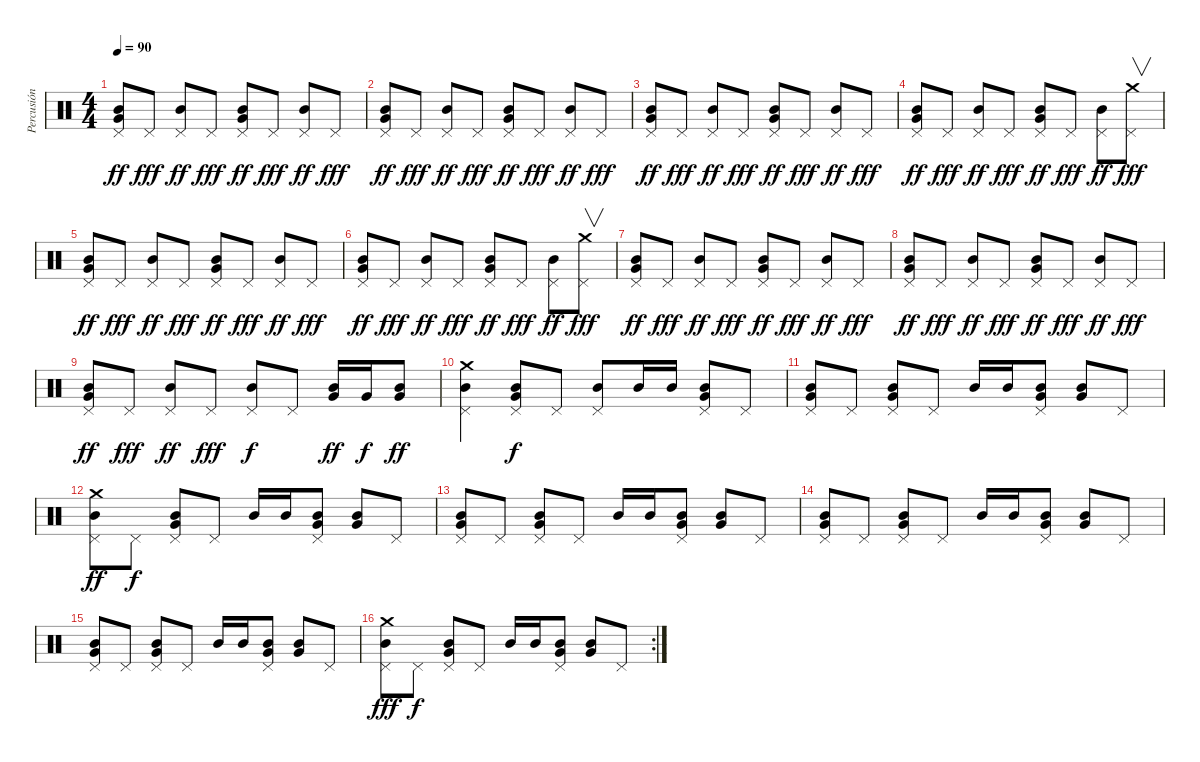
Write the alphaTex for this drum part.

\track ("Percusión" "Percusión") {instrument percussion}
\staff {score}
\articulation defaults
\ts (4 4)
\tempo 90
\clef neutral
\ks c
("Pedal Hi-Hat (hit)" "Very Low Tom (hit)" "Mid Tom (hit)").8{dy ff} "Pedal Hi-Hat (hit)".8{dy fff} ("Pedal Hi-Hat (hit)" "Mid Tom (hit)").8{dy ff} "Pedal Hi-Hat (hit)".8{dy fff} ("Pedal Hi-Hat (hit)" "Very Low Tom (hit)" "Mid Tom (hit)").8{dy ff} "Pedal Hi-Hat (hit)".8{dy fff} ("Pedal Hi-Hat (hit)" "Mid Tom (hit)").8{dy ff} "Pedal Hi-Hat (hit)".8{dy fff} |
("Pedal Hi-Hat (hit)" "Very Low Tom (hit)" "Mid Tom (hit)").8{dy ff} "Pedal Hi-Hat (hit)".8{dy fff} ("Pedal Hi-Hat (hit)" "Mid Tom (hit)").8{dy ff} "Pedal Hi-Hat (hit)".8{dy fff} ("Pedal Hi-Hat (hit)" "Very Low Tom (hit)" "Mid Tom (hit)").8{dy ff} "Pedal Hi-Hat (hit)".8{dy fff} ("Pedal Hi-Hat (hit)" "Mid Tom (hit)").8{dy ff} "Pedal Hi-Hat (hit)".8{dy fff} |
("Pedal Hi-Hat (hit)" "Very Low Tom (hit)" "Mid Tom (hit)").8{dy ff} "Pedal Hi-Hat (hit)".8{dy fff} ("Pedal Hi-Hat (hit)" "Mid Tom (hit)").8{dy ff} "Pedal Hi-Hat (hit)".8{dy fff} ("Pedal Hi-Hat (hit)" "Very Low Tom (hit)" "Mid Tom (hit)").8{dy ff} "Pedal Hi-Hat (hit)".8{dy fff} ("Pedal Hi-Hat (hit)" "Mid Tom (hit)").8{dy ff} "Pedal Hi-Hat (hit)".8{dy fff} |
("Pedal Hi-Hat (hit)" "Very Low Tom (hit)" "Mid Tom (hit)").8{dy ff} "Pedal Hi-Hat (hit)".8{dy fff} ("Pedal Hi-Hat (hit)" "Mid Tom (hit)").8{dy ff} "Pedal Hi-Hat (hit)".8{dy fff} ("Pedal Hi-Hat (hit)" "Very Low Tom (hit)" "Mid Tom (hit)").8{dy ff} "Pedal Hi-Hat (hit)".8{dy fff} ("Pedal Hi-Hat (hit)" "Mid Tom (hit)").8{dy ff} ("Pedal Hi-Hat (hit)" "Crash medium (hit)").8{v dy fff} |
("Pedal Hi-Hat (hit)" "Very Low Tom (hit)" "Mid Tom (hit)").8{dy ff} "Pedal Hi-Hat (hit)".8{dy fff} ("Pedal Hi-Hat (hit)" "Mid Tom (hit)").8{dy ff} "Pedal Hi-Hat (hit)".8{dy fff} ("Pedal Hi-Hat (hit)" "Very Low Tom (hit)" "Mid Tom (hit)").8{dy ff} "Pedal Hi-Hat (hit)".8{dy fff} ("Pedal Hi-Hat (hit)" "Mid Tom (hit)").8{dy ff} "Pedal Hi-Hat (hit)".8{dy fff} |
("Pedal Hi-Hat (hit)" "Very Low Tom (hit)" "Mid Tom (hit)").8{dy ff} "Pedal Hi-Hat (hit)".8{dy fff} ("Pedal Hi-Hat (hit)" "Mid Tom (hit)").8{dy ff} "Pedal Hi-Hat (hit)".8{dy fff} ("Pedal Hi-Hat (hit)" "Very Low Tom (hit)" "Mid Tom (hit)").8{dy ff} "Pedal Hi-Hat (hit)".8{dy fff} ("Pedal Hi-Hat (hit)" "Mid Tom (hit)").8{dy ff} ("Pedal Hi-Hat (hit)" "Crash medium (hit)").8{v dy fff} |
("Pedal Hi-Hat (hit)" "Very Low Tom (hit)" "Mid Tom (hit)").8{dy ff} "Pedal Hi-Hat (hit)".8{dy fff} ("Pedal Hi-Hat (hit)" "Mid Tom (hit)").8{dy ff} "Pedal Hi-Hat (hit)".8{dy fff} ("Pedal Hi-Hat (hit)" "Very Low Tom (hit)" "Mid Tom (hit)").8{dy ff} "Pedal Hi-Hat (hit)".8{dy fff} ("Pedal Hi-Hat (hit)" "Mid Tom (hit)").8{dy ff} "Pedal Hi-Hat (hit)".8{dy fff} |
("Pedal Hi-Hat (hit)" "Very Low Tom (hit)" "Mid Tom (hit)").8{dy ff} "Pedal Hi-Hat (hit)".8{dy fff} ("Pedal Hi-Hat (hit)" "Mid Tom (hit)").8{dy ff} "Pedal Hi-Hat (hit)".8{dy fff} ("Pedal Hi-Hat (hit)" "Very Low Tom (hit)" "Mid Tom (hit)").8{dy ff} "Pedal Hi-Hat (hit)".8{dy fff} ("Pedal Hi-Hat (hit)" "Mid Tom (hit)").8{dy ff} "Pedal Hi-Hat (hit)".8{dy fff} |
("Pedal Hi-Hat (hit)" "Very Low Tom (hit)" "Mid Tom (hit)").8{dy ff} "Pedal Hi-Hat (hit)".8{dy fff} ("Pedal Hi-Hat (hit)" "Mid Tom (hit)").8{dy ff} "Pedal Hi-Hat (hit)".8{dy fff} ("Pedal Hi-Hat (hit)" "Mid Tom (hit)").8{dy f} "Pedal Hi-Hat (hit)".8 ("Very Low Tom (hit)" "Mid Tom (hit)").16{dy ff} "Very Low Tom (hit)".16{dy f} ("Very Low Tom (hit)" "Mid Tom (hit)").8{dy ff} |
("Pedal Hi-Hat (hit)" "Mid Tom (hit)" "Crash medium (hit)").4 ("Pedal Hi-Hat (hit)" "Very Low Tom (hit)" "Mid Tom (hit)").8{dy f} "Pedal Hi-Hat (hit)".8 ("Pedal Hi-Hat (hit)" "Mid Tom (hit)").8 "Mid Tom (hit)".16 "Mid Tom (hit)".16 ("Pedal Hi-Hat (hit)" "Very Low Tom (hit)" "Mid Tom (hit)").8 "Pedal Hi-Hat (hit)".8 |
("Pedal Hi-Hat (hit)" "Very Low Tom (hit)" "Mid Tom (hit)").8 "Pedal Hi-Hat (hit)".8 ("Pedal Hi-Hat (hit)" "Very Low Tom (hit)" "Mid Tom (hit)").8 "Pedal Hi-Hat (hit)".8 "Mid Tom (hit)".16 "Mid Tom (hit)".16 ("Pedal Hi-Hat (hit)" "Very Low Tom (hit)" "Mid Tom (hit)").8 ("Very Low Tom (hit)" "Mid Tom (hit)").8 "Pedal Hi-Hat (hit)".8 |
("Pedal Hi-Hat (hit)" "Mid Tom (hit)" "Crash medium (hit)").8{dy ff} "Pedal Hi-Hat (hit)".8{dy f} ("Pedal Hi-Hat (hit)" "Very Low Tom (hit)" "Mid Tom (hit)").8 "Pedal Hi-Hat (hit)".8 "Mid Tom (hit)".16 "Mid Tom (hit)".16 ("Pedal Hi-Hat (hit)" "Very Low Tom (hit)" "Mid Tom (hit)").8 ("Very Low Tom (hit)" "Mid Tom (hit)").8 "Pedal Hi-Hat (hit)".8 |
("Pedal Hi-Hat (hit)" "Very Low Tom (hit)" "Mid Tom (hit)").8 "Pedal Hi-Hat (hit)".8 ("Pedal Hi-Hat (hit)" "Very Low Tom (hit)" "Mid Tom (hit)").8 "Pedal Hi-Hat (hit)".8 "Mid Tom (hit)".16 "Mid Tom (hit)".16 ("Pedal Hi-Hat (hit)" "Very Low Tom (hit)" "Mid Tom (hit)").8 ("Very Low Tom (hit)" "Mid Tom (hit)").8 "Pedal Hi-Hat (hit)".8 |
("Pedal Hi-Hat (hit)" "Very Low Tom (hit)" "Mid Tom (hit)").8 "Pedal Hi-Hat (hit)".8 ("Pedal Hi-Hat (hit)" "Very Low Tom (hit)" "Mid Tom (hit)").8 "Pedal Hi-Hat (hit)".8 "Mid Tom (hit)".16 "Mid Tom (hit)".16 ("Pedal Hi-Hat (hit)" "Very Low Tom (hit)" "Mid Tom (hit)").8 ("Very Low Tom (hit)" "Mid Tom (hit)").8 "Pedal Hi-Hat (hit)".8 |
("Pedal Hi-Hat (hit)" "Very Low Tom (hit)" "Mid Tom (hit)").8 "Pedal Hi-Hat (hit)".8 ("Pedal Hi-Hat (hit)" "Very Low Tom (hit)" "Mid Tom (hit)").8 "Pedal Hi-Hat (hit)".8 "Mid Tom (hit)".16 "Mid Tom (hit)".16 ("Pedal Hi-Hat (hit)" "Very Low Tom (hit)" "Mid Tom (hit)").8 ("Very Low Tom (hit)" "Mid Tom (hit)").8 "Pedal Hi-Hat (hit)".8 |
\rc 2
("Pedal Hi-Hat (hit)" "Mid Tom (hit)" "Crash medium (hit)").8{dy fff} "Pedal Hi-Hat (hit)".8{dy f} ("Pedal Hi-Hat (hit)" "Very Low Tom (hit)" "Mid Tom (hit)").8 "Pedal Hi-Hat (hit)".8 "Mid Tom (hit)".16 "Mid Tom (hit)".16 ("Pedal Hi-Hat (hit)" "Very Low Tom (hit)" "Mid Tom (hit)").8 ("Very Low Tom (hit)" "Mid Tom (hit)").8 "Pedal Hi-Hat (hit)".8
